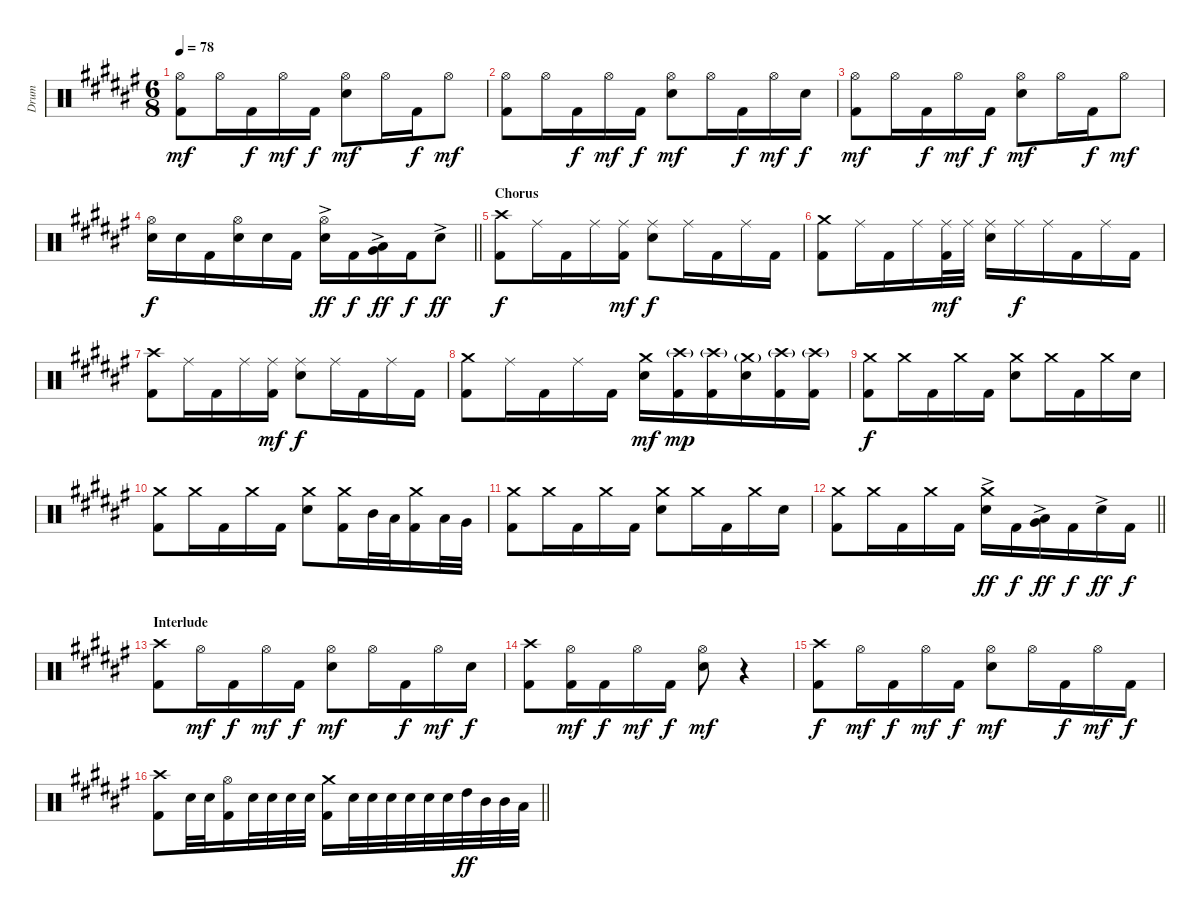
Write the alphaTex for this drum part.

\track ("Drum" "Drum") {instrument percussion}
\staff {score}
\articulation defaults
\ts (6 8)
\tempo 78
\clef neutral
\ks d#minor
("Hi-Hat (open)" "Kick (hit) 2").8{dy mf} "Hi-Hat (open)".16 "Kick (hit) 2".16{dy f} "Hi-Hat (open)".16{dy mf} "Kick (hit) 2".16{dy f} ("Hi-Hat (open)" "Electric Snare (hit)").8{dy mf} "Hi-Hat (open)".16 "Kick (hit) 2".16{dy f} "Hi-Hat (open)".8{dy mf} |
("Hi-Hat (open)" "Kick (hit) 2").8 "Hi-Hat (open)".16 "Kick (hit) 2".16{dy f} "Hi-Hat (open)".16{dy mf} "Kick (hit) 2".16{dy f} ("Hi-Hat (open)" "Electric Snare (hit)").8{dy mf} "Hi-Hat (open)".16 "Kick (hit) 2".16{dy f} "Hi-Hat (open)".16{dy mf} "Electric Snare (hit)".16{dy f} |
("Hi-Hat (open)" "Kick (hit) 2").8{dy mf} "Hi-Hat (open)".16 "Kick (hit) 2".16{dy f} "Hi-Hat (open)".16{dy mf} "Kick (hit) 2".16{dy f} ("Hi-Hat (open)" "Electric Snare (hit)").8{dy mf} "Hi-Hat (open)".16 "Kick (hit) 2".16{dy f} "Hi-Hat (open)".8{dy mf} |
\barLineRight lightlight
("Hi-Hat (open)" "Electric Snare (hit)").16{dy f} "Electric Snare (hit)".16 "Kick (hit) 2".16 ("Hi-Hat (open)" "Electric Snare (hit)").16 "Electric Snare (hit)".16 "Kick (hit) 2".16 ("Hi-Hat (open)" "Electric Snare (hit)"{ac}).16{dy ff} "Kick (hit) 2".16{dy f} ("Low Tom (hit)" "Very Low Tom (hit)"{ac}).16{dy ff} "Kick (hit) 2".16{dy f} "Electric Snare (hit)"{ac}.8{dy ff} |
\section ("" "Chorus")
("Crash high (hit)" "Kick (hit) 2").8{dy f} "Ride (middle)".16 "Kick (hit) 2".16 "Ride (middle)".16 ("Ride (middle)" "Kick (hit) 2").16{dy mf} ("Ride (middle)" "Electric Snare (hit)").8{dy f} "Ride (middle)".16 "Kick (hit) 2".16 "Ride (middle)".16 "Kick (hit) 2".16 |
("Crash medium (hit)" "Kick (hit) 2").8 "Ride (middle)".16 "Kick (hit) 2".16 "Ride (middle)".16 ("Ride (middle)" "Kick (hit) 2").32{dy mf} "Ride (middle)".32 ("Ride (middle)" "Electric Snare (hit)").16 "Ride (middle)".16{dy f} "Ride (middle)".16 "Kick (hit) 2".16 "Ride (middle)".16 "Kick (hit) 2".16 |
("Crash high (hit)" "Kick (hit) 2").8 "Ride (middle)".16 "Kick (hit) 2".16 "Ride (middle)".16 ("Ride (middle)" "Kick (hit) 2").16{dy mf} ("Ride (middle)" "Electric Snare (hit)").8{dy f} "Ride (middle)".16 "Kick (hit) 2".16 "Ride (middle)".16 "Kick (hit) 2".16 |
("Crash medium (hit)" "Kick (hit) 2").8 "Ride (middle)".16 "Kick (hit) 2".16 "Ride (middle)".16 "Kick (hit) 2".16 ("Crash medium (hit)" "Electric Snare (hit)").16{dy mf} ("Crash high (hit)"{g} "Kick (hit) 2").16{dy mp} ("Crash high (hit)"{g} "Kick (hit) 2").16 ("Crash medium (hit)"{g} "Electric Snare (hit)").16 ("Crash high (hit)"{g} "Kick (hit) 2").16 ("Crash high (hit)"{g} "Kick (hit) 2").16 |
("Crash medium (hit)" "Kick (hit) 2").8{dy f} "Crash medium (hit)".16 "Kick (hit) 2".16 "Crash medium (hit)".16 "Kick (hit) 2".16 ("Crash medium (hit)" "Electric Snare (hit)").8 "Crash medium (hit)".16 "Kick (hit) 2".16 "Crash medium (hit)".16 "Electric Snare (hit)".16 |
("Crash medium (hit)" "Kick (hit) 2").8 "Crash medium (hit)".16 "Kick (hit) 2".16 "Crash medium (hit)".16 "Kick (hit) 2".16 ("Crash medium (hit)" "Electric Snare (hit)").8 ("Crash medium (hit)" "Kick (hit) 2").16 "Mid Tom (hit)".32 "Low Tom (hit)".32 ("Crash medium (hit)" "Kick (hit) 2").16 "Low Tom (hit)".32 "Very Low Tom (hit)".32 |
("Crash medium (hit)" "Kick (hit) 2").8 "Crash medium (hit)".16 "Kick (hit) 2".16 "Crash medium (hit)".16 "Kick (hit) 2".16 ("Crash medium (hit)" "Electric Snare (hit)").8 "Crash medium (hit)".16 "Kick (hit) 2".16 "Crash medium (hit)".16 "Electric Snare (hit)".16 |
\barLineRight lightlight
("Crash medium (hit)" "Kick (hit) 2").8 "Crash medium (hit)".16 "Kick (hit) 2".16 "Crash medium (hit)".16 "Kick (hit) 2".16 ("Crash medium (hit)" "Electric Snare (hit)"{ac}).16{dy ff} "Kick (hit) 2".16{dy f} ("Low Tom (hit)" "Very Low Tom (hit)"{ac}).16{dy ff} "Kick (hit) 2".16{dy f} "Electric Snare (hit)"{ac}.16{dy ff} "Kick (hit) 2".16{dy f} |
\section ("" "Interlude")
("Crash high (hit)" "Kick (hit) 2").8 "Hi-Hat (open)".16{dy mf} "Kick (hit) 2".16{dy f} "Hi-Hat (open)".16{dy mf} "Kick (hit) 2".16{dy f} ("Hi-Hat (open)" "Electric Snare (hit)").8{dy mf} "Hi-Hat (open)".16 "Kick (hit) 2".16{dy f} "Hi-Hat (open)".16{dy mf} "Electric Snare (hit)".16{dy f} |
("Crash high (hit)" "Kick (hit) 2").8 ("Hi-Hat (open)" "Kick (hit) 2").16{dy mf} "Kick (hit) 2".16{dy f} "Hi-Hat (open)".16{dy mf} "Kick (hit) 2".16{dy f} ("Hi-Hat (open)" "Electric Snare (hit)").8{dy mf} r.4 |
("Crash high (hit)" "Kick (hit) 2").8{dy f} "Hi-Hat (open)".16{dy mf} "Kick (hit) 2".16{dy f} "Hi-Hat (open)".16{dy mf} "Kick (hit) 2".16{dy f} ("Hi-Hat (open)" "Electric Snare (hit)").8{dy mf} "Hi-Hat (open)".16 "Kick (hit) 2".16{dy f} "Hi-Hat (open)".16{dy mf} "Kick (hit) 2".16{dy f} |
\barLineRight lightlight
("Crash high (hit)" "Kick (hit) 2").8 "Electric Snare (hit)".32 "Electric Snare (hit)".32 ("Hi-Hat (open)" "Kick (hit) 2").16 "Electric Snare (hit)".32 "Electric Snare (hit)".32 "Electric Snare (hit)".32 "Electric Snare (hit)".32 ("Crash medium (hit)" "Kick (hit) 2").16 "Electric Snare (hit)".32 "Electric Snare (hit)".32 "Electric Snare (hit)".32 "Electric Snare (hit)".32 "Electric Snare (hit)".32 "Electric Snare (hit)".32 "High Tom (hit)".32{dy ff} "Mid Tom (hit)".32 "Mid Tom (hit)".32 "Low Tom (hit)".32
